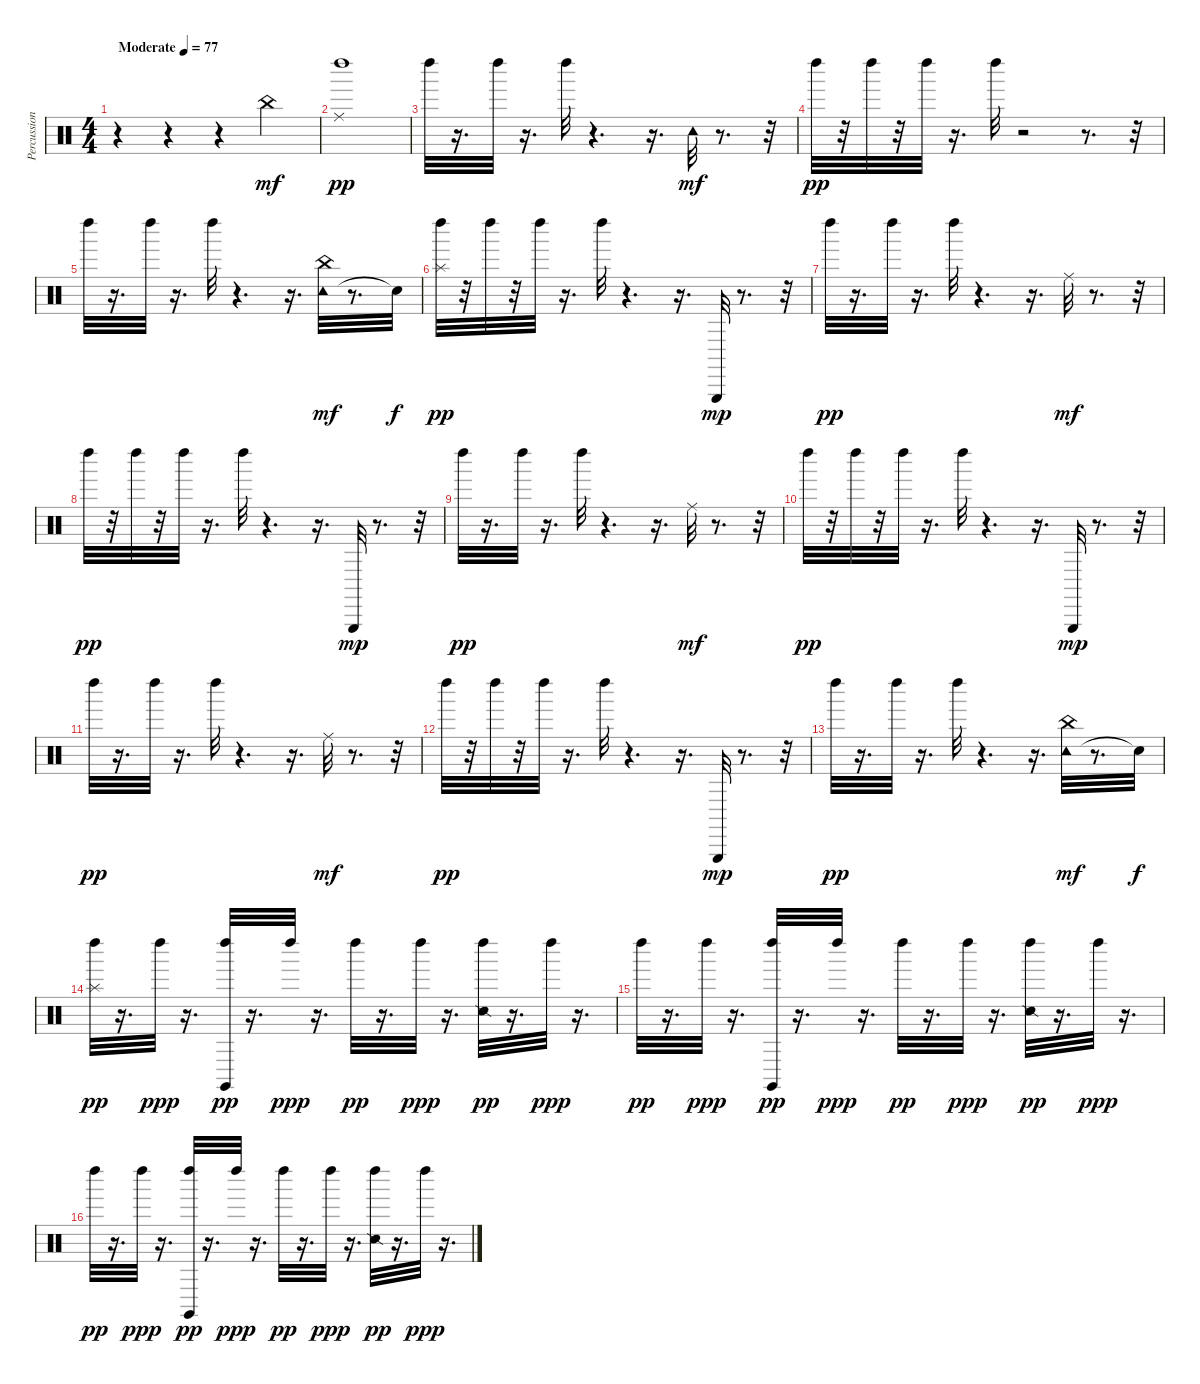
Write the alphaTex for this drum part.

\track ("Percussion" "Percussion") {instrument percussion}
\staff {score}
\articulation defaults
\ts (4 4)
\tempo (77 "Moderate")
\clef neutral
\ks c
r.4{dy mf} r.4 r.4 "China (hit)".4 |
("Left Maraca (hit)" "Ride (middle)").1{dy pp} |
"Left Maraca (hit)".32 r.16{d} "Left Maraca (hit)".32 r.16{d} "Left Maraca (hit)".32 r.4{d} r.16{d} "Tambourine (hit)".32{dy mf} r.8{d} r.32 |
"Left Maraca (hit)".32{dy pp} r.32 "Left Maraca (hit)".32 r.32 "Left Maraca (hit)".32 r.16{d} "Left Maraca (hit)".32 r.2 r.8{d} r.32 |
"Left Maraca (hit)".32 r.16{d} "Left Maraca (hit)".32 r.16{d} "Left Maraca (hit)".32 r.4{d} r.16{d} ("Tambourine (hit)" "China (hit)").32{dy mf} r.8{d} "Snare (hit)"{t}.32{dy f} |
("Left Maraca (hit)" "Splash (hit)").32{dy pp} r.32 "Left Maraca (hit)".32 r.32 "Left Maraca (hit)".32 r.16{d} "Left Maraca (hit)".32 r.4{d} r.16{d} "Triangle (hit)".32{dy mp} r.8{d} r.32 |
"Left Maraca (hit)".32{dy pp} r.16{d} "Left Maraca (hit)".32 r.16{d} "Left Maraca (hit)".32 r.4{d} r.16{d} "Ride (middle)".32{dy mf} r.8{d} r.32 |
"Left Maraca (hit)".32{dy pp} r.32 "Left Maraca (hit)".32 r.32 "Left Maraca (hit)".32 r.16{d} "Left Maraca (hit)".32 r.4{d} r.16{d} "Triangle (hit)".32{dy mp} r.8{d} r.32 |
"Left Maraca (hit)".32{dy pp} r.16{d} "Left Maraca (hit)".32 r.16{d} "Left Maraca (hit)".32 r.4{d} r.16{d} "Ride (middle)".32{dy mf} r.8{d} r.32 |
"Left Maraca (hit)".32{dy pp} r.32 "Left Maraca (hit)".32 r.32 "Left Maraca (hit)".32 r.16{d} "Left Maraca (hit)".32 r.4{d} r.16{d} "Triangle (hit)".32{dy mp} r.8{d} r.32 |
"Left Maraca (hit)".32{dy pp} r.16{d} "Left Maraca (hit)".32 r.16{d} "Left Maraca (hit)".32 r.4{d} r.16{d} "Ride (middle)".32{dy mf} r.8{d} r.32 |
"Left Maraca (hit)".32{dy pp} r.32 "Left Maraca (hit)".32 r.32 "Left Maraca (hit)".32 r.16{d} "Left Maraca (hit)".32 r.4{d} r.16{d} "Triangle (hit)".32{dy mp} r.8{d} r.32 |
"Left Maraca (hit)".32{dy pp} r.16{d} "Left Maraca (hit)".32 r.16{d} "Left Maraca (hit)".32 r.4{d} r.16{d} ("Tambourine (hit)" "China (hit)").32{dy mf} r.8{d} "Snare (hit)"{t}.32{dy f} |
("Left Maraca (hit)" "Splash (hit)").32{dy pp} r.16{d} "Left Maraca (hit)".32{dy ppp} r.16{d} ("Claves (hit)" "Left Maraca (hit)").32{dy pp} r.16{d} "Left Maraca (hit)".32{dy ppp} r.16{d} "Left Maraca (hit)".32{dy pp} r.16{d} "Left Maraca (hit)".32{dy ppp} r.16{d} ("Snare (side stick) 2" "Left Maraca (hit)").32{dy pp} r.16{d} "Left Maraca (hit)".32{dy ppp} r.16{d} |
"Left Maraca (hit)".32{dy pp} r.16{d} "Left Maraca (hit)".32{dy ppp} r.16{d} ("Left Maraca (hit)" "Claves (hit)").32{dy pp} r.16{d} "Left Maraca (hit)".32{dy ppp} r.16{d} "Left Maraca (hit)".32{dy pp} r.16{d} "Left Maraca (hit)".32{dy ppp} r.16{d} ("Snare (side stick) 2" "Left Maraca (hit)").32{dy pp} r.16{d} "Left Maraca (hit)".32{dy ppp} r.16{d} |
"Left Maraca (hit)".32{dy pp} r.16{d} "Left Maraca (hit)".32{dy ppp} r.16{d} ("Claves (hit)" "Left Maraca (hit)").32{dy pp} r.16{d} "Left Maraca (hit)".32{dy ppp} r.16{d} "Left Maraca (hit)".32{dy pp} r.16{d} "Left Maraca (hit)".32{dy ppp} r.16{d} ("Left Maraca (hit)" "Snare (side stick) 2").32{dy pp} r.16{d} "Left Maraca (hit)".32{dy ppp} r.16{d}
